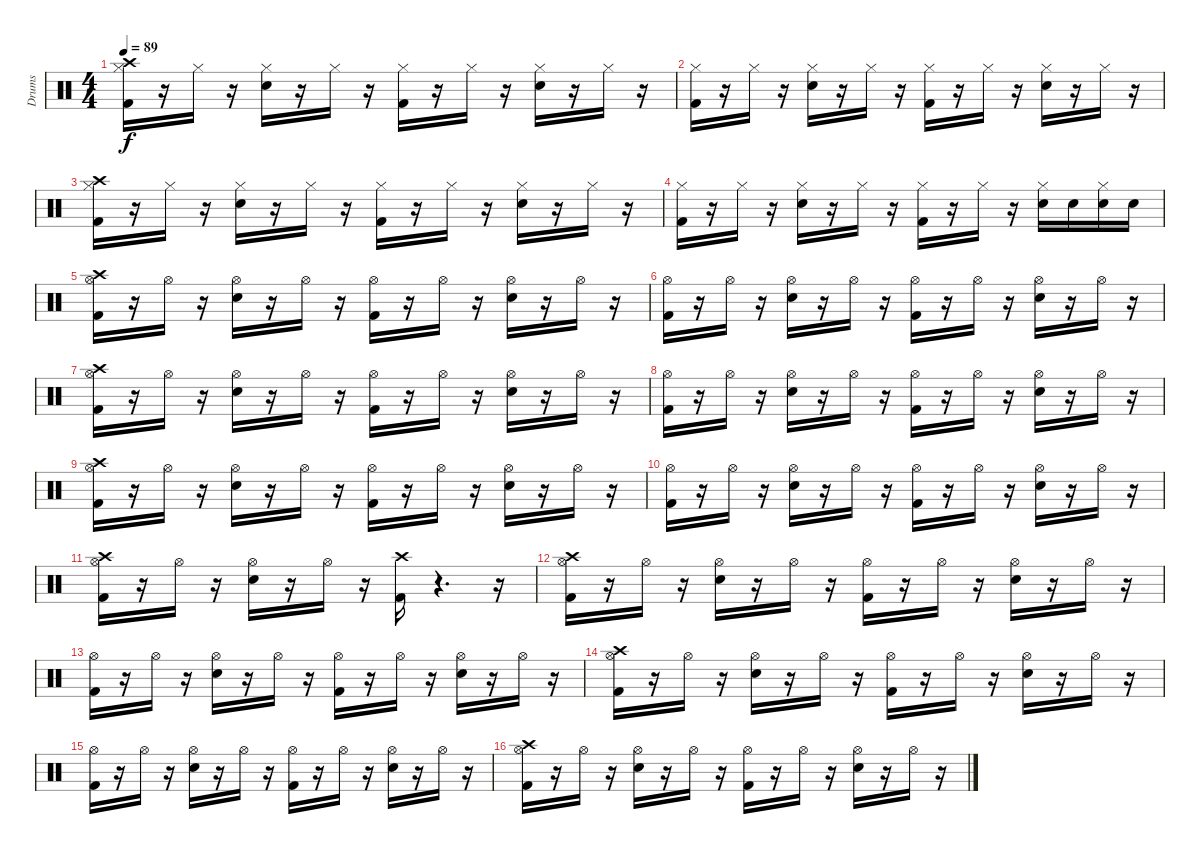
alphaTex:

\track ("Drums " "Drums ") {instrument percussion}
\staff {score}
\articulation defaults
\ts (4 4)
\tempo 89
\clef neutral
\ks c
("Kick (hit) 2" "Crash high (hit)" "Hi-Hat (closed)").16{dy f} r.16 "Hi-Hat (closed)".16 r.16 ("Snare (hit) 2" "Hi-Hat (closed)").16 r.16 "Hi-Hat (closed)".16 r.16 ("Kick (hit) 2" "Hi-Hat (closed)").16 r.16 "Hi-Hat (closed)".16 r.16 ("Snare (hit) 2" "Hi-Hat (closed)").16 r.16 "Hi-Hat (closed)".16 r.16 |
("Kick (hit) 2" "Hi-Hat (closed)").16 r.16 "Hi-Hat (closed)".16 r.16 ("Snare (hit) 2" "Hi-Hat (closed)").16 r.16 "Hi-Hat (closed)".16 r.16 ("Kick (hit) 2" "Hi-Hat (closed)").16 r.16 "Hi-Hat (closed)".16 r.16 ("Snare (hit) 2" "Hi-Hat (closed)").16 r.16 "Hi-Hat (closed)".16 r.16 |
("Kick (hit) 2" "Crash high (hit)" "Hi-Hat (closed)").16 r.16 "Hi-Hat (closed)".16 r.16 ("Snare (hit) 2" "Hi-Hat (closed)").16 r.16 "Hi-Hat (closed)".16 r.16 ("Kick (hit) 2" "Hi-Hat (closed)").16 r.16 "Hi-Hat (closed)".16 r.16 ("Snare (hit) 2" "Hi-Hat (closed)").16 r.16 "Hi-Hat (closed)".16 r.16 |
("Kick (hit) 2" "Hi-Hat (closed)").16 r.16 "Hi-Hat (closed)".16 r.16 ("Snare (hit) 2" "Hi-Hat (closed)").16 r.16 "Hi-Hat (closed)".16 r.16 ("Kick (hit) 2" "Hi-Hat (closed)").16 r.16 "Hi-Hat (closed)".16 r.16 ("Snare (hit) 2" "Hi-Hat (closed)").16 "Snare (hit) 2".16 ("Hi-Hat (closed)" "Snare (hit) 2").16 "Snare (hit) 2".16 |
("Kick (hit) 2" "Crash high (hit)" "Hi-Hat (open)").16 r.16 "Hi-Hat (open)".16 r.16 ("Snare (hit) 2" "Hi-Hat (open)").16 r.16 "Hi-Hat (open)".16 r.16 ("Kick (hit) 2" "Hi-Hat (open)").16 r.16 "Hi-Hat (open)".16 r.16 ("Snare (hit) 2" "Hi-Hat (open)").16 r.16 "Hi-Hat (open)".16 r.16 |
("Kick (hit) 2" "Hi-Hat (open)").16 r.16 "Hi-Hat (open)".16 r.16 ("Snare (hit) 2" "Hi-Hat (open)").16 r.16 "Hi-Hat (open)".16 r.16 ("Kick (hit) 2" "Hi-Hat (open)").16 r.16 "Hi-Hat (open)".16 r.16 ("Snare (hit) 2" "Hi-Hat (open)").16 r.16 "Hi-Hat (open)".16 r.16 |
("Kick (hit) 2" "Crash high (hit)" "Hi-Hat (open)").16 r.16 "Hi-Hat (open)".16 r.16 ("Snare (hit) 2" "Hi-Hat (open)").16 r.16 "Hi-Hat (open)".16 r.16 ("Kick (hit) 2" "Hi-Hat (open)").16 r.16 "Hi-Hat (open)".16 r.16 ("Snare (hit) 2" "Hi-Hat (open)").16 r.16 "Hi-Hat (open)".16 r.16 |
("Kick (hit) 2" "Hi-Hat (open)").16 r.16 "Hi-Hat (open)".16 r.16 ("Snare (hit) 2" "Hi-Hat (open)").16 r.16 "Hi-Hat (open)".16 r.16 ("Kick (hit) 2" "Hi-Hat (open)").16 r.16 "Hi-Hat (open)".16 r.16 ("Snare (hit) 2" "Hi-Hat (open)").16 r.16 "Hi-Hat (open)".16 r.16 |
("Kick (hit) 2" "Crash high (hit)" "Hi-Hat (open)").16 r.16 "Hi-Hat (open)".16 r.16 ("Snare (hit) 2" "Hi-Hat (open)").16 r.16 "Hi-Hat (open)".16 r.16 ("Kick (hit) 2" "Hi-Hat (open)").16 r.16 "Hi-Hat (open)".16 r.16 ("Snare (hit) 2" "Hi-Hat (open)").16 r.16 "Hi-Hat (open)".16 r.16 |
("Kick (hit) 2" "Hi-Hat (open)").16 r.16 "Hi-Hat (open)".16 r.16 ("Snare (hit) 2" "Hi-Hat (open)").16 r.16 "Hi-Hat (open)".16 r.16 ("Kick (hit) 2" "Hi-Hat (open)").16 r.16 "Hi-Hat (open)".16 r.16 ("Snare (hit) 2" "Hi-Hat (open)").16 r.16 "Hi-Hat (open)".16 r.16 |
("Kick (hit) 2" "Crash high (hit)" "Hi-Hat (open)").16 r.16 "Hi-Hat (open)".16 r.16 ("Snare (hit) 2" "Hi-Hat (open)").16 r.16 "Hi-Hat (open)".16 r.16 ("Kick (hit) 2" "Crash high (hit)").16 r.4{d} r.16 |
("Kick (hit) 2" "Crash high (hit)" "Hi-Hat (open)").16 r.16 "Hi-Hat (open)".16 r.16 ("Snare (hit) 2" "Hi-Hat (open)").16 r.16 "Hi-Hat (open)".16 r.16 ("Kick (hit) 2" "Hi-Hat (open)").16 r.16 "Hi-Hat (open)".16 r.16 ("Snare (hit) 2" "Hi-Hat (open)").16 r.16 "Hi-Hat (open)".16 r.16 |
("Kick (hit) 2" "Hi-Hat (open)").16 r.16 "Hi-Hat (open)".16 r.16 ("Snare (hit) 2" "Hi-Hat (open)").16 r.16 "Hi-Hat (open)".16 r.16 ("Kick (hit) 2" "Hi-Hat (open)").16 r.16 "Hi-Hat (open)".16 r.16 ("Snare (hit) 2" "Hi-Hat (open)").16 r.16 "Hi-Hat (open)".16 r.16 |
("Kick (hit) 2" "Crash high (hit)" "Hi-Hat (open)").16 r.16 "Hi-Hat (open)".16 r.16 ("Snare (hit) 2" "Hi-Hat (open)").16 r.16 "Hi-Hat (open)".16 r.16 ("Kick (hit) 2" "Hi-Hat (open)").16 r.16 "Hi-Hat (open)".16 r.16 ("Snare (hit) 2" "Hi-Hat (open)").16 r.16 "Hi-Hat (open)".16 r.16 |
("Kick (hit) 2" "Hi-Hat (open)").16 r.16 "Hi-Hat (open)".16 r.16 ("Snare (hit) 2" "Hi-Hat (open)").16 r.16 "Hi-Hat (open)".16 r.16 ("Kick (hit) 2" "Hi-Hat (open)").16 r.16 "Hi-Hat (open)".16 r.16 ("Snare (hit) 2" "Hi-Hat (open)").16 r.16 "Hi-Hat (open)".16 r.16 |
("Kick (hit) 2" "Crash high (hit)" "Hi-Hat (open)").16 r.16 "Hi-Hat (open)".16 r.16 ("Snare (hit) 2" "Hi-Hat (open)").16 r.16 "Hi-Hat (open)".16 r.16 ("Kick (hit) 2" "Hi-Hat (open)").16 r.16 "Hi-Hat (open)".16 r.16 ("Snare (hit) 2" "Hi-Hat (open)").16 r.16 "Hi-Hat (open)".16 r.16
